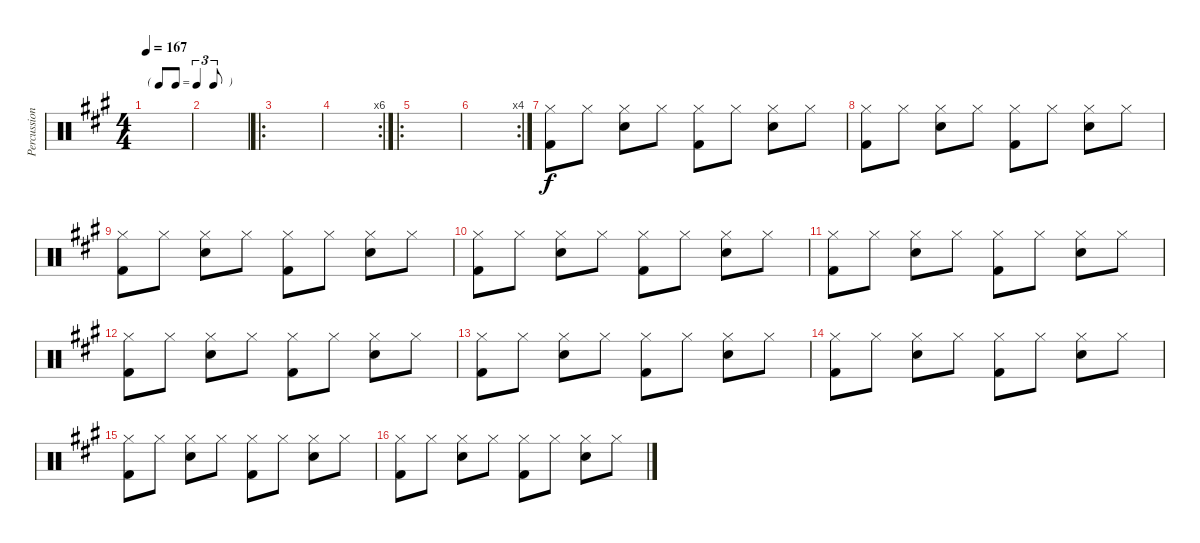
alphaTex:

\track ("Percussion" "Percussion") {instrument percussion}
\staff {score}
\articulation defaults
\ts (4 4)
\tf triplet8th
\tempo 167
\clef neutral
\ks a
|
|
\ro
|
\rc 6
|
\ro
|
\rc 4
|
("Hi-Hat (closed)" "Kick (hit) 2").8 "Hi-Hat (closed)".8 ("Hi-Hat (closed)" "Snare (hit) 2").8 "Hi-Hat (closed)".8 ("Hi-Hat (closed)" "Kick (hit) 2").8 "Hi-Hat (closed)".8 ("Hi-Hat (closed)" "Snare (hit) 2").8 "Hi-Hat (closed)".8 |
("Hi-Hat (closed)" "Kick (hit) 2").8 "Hi-Hat (closed)".8 ("Hi-Hat (closed)" "Snare (hit) 2").8 "Hi-Hat (closed)".8 ("Hi-Hat (closed)" "Kick (hit) 2").8 "Hi-Hat (closed)".8 ("Hi-Hat (closed)" "Snare (hit) 2").8 "Hi-Hat (closed)".8 |
("Hi-Hat (closed)" "Kick (hit) 2").8 "Hi-Hat (closed)".8 ("Hi-Hat (closed)" "Snare (hit) 2").8 "Hi-Hat (closed)".8 ("Hi-Hat (closed)" "Kick (hit) 2").8 "Hi-Hat (closed)".8 ("Hi-Hat (closed)" "Snare (hit) 2").8 "Hi-Hat (closed)".8 |
("Hi-Hat (closed)" "Kick (hit) 2").8 "Hi-Hat (closed)".8 ("Hi-Hat (closed)" "Snare (hit) 2").8 "Hi-Hat (closed)".8 ("Hi-Hat (closed)" "Kick (hit) 2").8 "Hi-Hat (closed)".8 ("Hi-Hat (closed)" "Snare (hit) 2").8 "Hi-Hat (closed)".8 |
("Hi-Hat (closed)" "Kick (hit) 2").8 "Hi-Hat (closed)".8 ("Hi-Hat (closed)" "Snare (hit) 2").8 "Hi-Hat (closed)".8 ("Hi-Hat (closed)" "Kick (hit) 2").8 "Hi-Hat (closed)".8 ("Hi-Hat (closed)" "Snare (hit) 2").8 "Hi-Hat (closed)".8 |
("Hi-Hat (closed)" "Kick (hit) 2").8 "Hi-Hat (closed)".8 ("Hi-Hat (closed)" "Snare (hit) 2").8 "Hi-Hat (closed)".8 ("Hi-Hat (closed)" "Kick (hit) 2").8 "Hi-Hat (closed)".8 ("Hi-Hat (closed)" "Snare (hit) 2").8 "Hi-Hat (closed)".8 |
("Hi-Hat (closed)" "Kick (hit) 2").8 "Hi-Hat (closed)".8 ("Hi-Hat (closed)" "Snare (hit) 2").8 "Hi-Hat (closed)".8 ("Hi-Hat (closed)" "Kick (hit) 2").8 "Hi-Hat (closed)".8 ("Hi-Hat (closed)" "Snare (hit) 2").8 "Hi-Hat (closed)".8 |
("Hi-Hat (closed)" "Kick (hit) 2").8 "Hi-Hat (closed)".8 ("Hi-Hat (closed)" "Snare (hit) 2").8 "Hi-Hat (closed)".8 ("Hi-Hat (closed)" "Kick (hit) 2").8 "Hi-Hat (closed)".8 ("Hi-Hat (closed)" "Snare (hit) 2").8 "Hi-Hat (closed)".8 |
("Hi-Hat (closed)" "Kick (hit) 2").8 "Hi-Hat (closed)".8 ("Hi-Hat (closed)" "Snare (hit) 2").8 "Hi-Hat (closed)".8 ("Hi-Hat (closed)" "Kick (hit) 2").8 "Hi-Hat (closed)".8 ("Hi-Hat (closed)" "Snare (hit) 2").8 "Hi-Hat (closed)".8 |
("Hi-Hat (closed)" "Kick (hit) 2").8 "Hi-Hat (closed)".8 ("Hi-Hat (closed)" "Snare (hit) 2").8 "Hi-Hat (closed)".8 ("Hi-Hat (closed)" "Kick (hit) 2").8 "Hi-Hat (closed)".8 ("Hi-Hat (closed)" "Snare (hit) 2").8 "Hi-Hat (closed)".8
